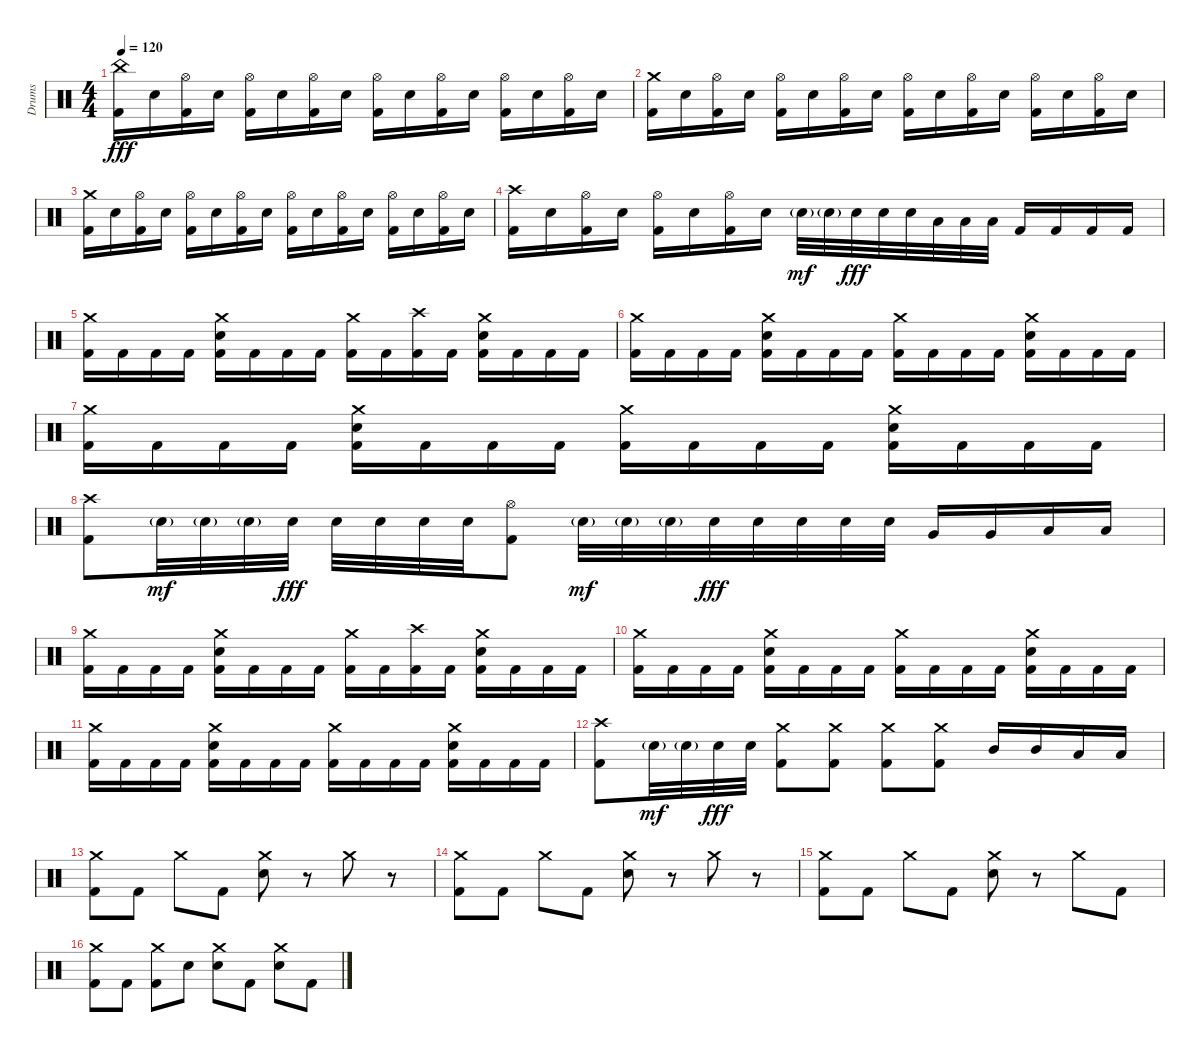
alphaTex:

\track ("Drums" "Drums") {instrument percussion}
\staff {score}
\articulation defaults
\ts (4 4)
\tempo 120
\clef neutral
\ks c
("China (hit)" "Kick (hit) 2").16{dy fff} "Electric Snare (hit)".16 ("Hi-Hat (open)" "Kick (hit) 2").16 "Electric Snare (hit)".16 ("Hi-Hat (open)" "Kick (hit) 2").16 "Electric Snare (hit)".16 ("Hi-Hat (open)" "Kick (hit) 2").16 "Electric Snare (hit)".16 ("Hi-Hat (open)" "Kick (hit) 2").16 "Electric Snare (hit)".16 ("Hi-Hat (open)" "Kick (hit) 2").16 "Electric Snare (hit)".16 ("Hi-Hat (open)" "Kick (hit) 2").16 "Electric Snare (hit)".16 ("Hi-Hat (open)" "Kick (hit) 2").16 "Electric Snare (hit)".16 |
("Crash medium (hit)" "Kick (hit) 2").16 "Electric Snare (hit)".16 ("Hi-Hat (open)" "Kick (hit) 2").16 "Electric Snare (hit)".16 ("Hi-Hat (open)" "Kick (hit) 2").16 "Electric Snare (hit)".16 ("Hi-Hat (open)" "Kick (hit) 2").16 "Electric Snare (hit)".16 ("Hi-Hat (open)" "Kick (hit) 2").16 "Electric Snare (hit)".16 ("Hi-Hat (open)" "Kick (hit) 2").16 "Electric Snare (hit)".16 ("Hi-Hat (open)" "Kick (hit) 2").16 "Electric Snare (hit)".16 ("Hi-Hat (open)" "Kick (hit) 2").16 "Electric Snare (hit)".16 |
("Crash medium (hit)" "Kick (hit) 2").16 "Electric Snare (hit)".16 ("Hi-Hat (open)" "Kick (hit) 2").16 "Electric Snare (hit)".16 ("Hi-Hat (open)" "Kick (hit) 2").16 "Electric Snare (hit)".16 ("Hi-Hat (open)" "Kick (hit) 2").16 "Electric Snare (hit)".16 ("Hi-Hat (open)" "Kick (hit) 2").16 "Electric Snare (hit)".16 ("Hi-Hat (open)" "Kick (hit) 2").16 "Electric Snare (hit)".16 ("Hi-Hat (open)" "Kick (hit) 2").16 "Electric Snare (hit)".16 ("Hi-Hat (open)" "Kick (hit) 2").16 "Electric Snare (hit)".16 |
("Crash high (hit)" "Kick (hit) 2").16 "Electric Snare (hit)".16 ("Hi-Hat (open)" "Kick (hit) 2").16 "Electric Snare (hit)".16 ("Hi-Hat (open)" "Kick (hit) 2").16 "Electric Snare (hit)".16 ("Hi-Hat (open)" "Kick (hit) 2").16 "Electric Snare (hit)".16 "Electric Snare (hit)"{g}.32{dy mf} "Electric Snare (hit)"{g}.32 "Electric Snare (hit)".32{dy fff} "Electric Snare (hit)".32 "Electric Snare (hit)".32 "Low Tom (hit)".32 "Low Tom (hit)".32 "Low Tom (hit)".32 "Kick (hit) 2".16 "Kick (hit) 2".16 "Kick (hit) 2".16 "Kick (hit) 2".16 |
("Crash medium (hit)" "Kick (hit) 2").16 "Kick (hit) 2".16 "Kick (hit) 2".16 "Kick (hit) 2".16 ("Crash medium (hit)" "Electric Snare (hit)" "Kick (hit) 2").16 "Kick (hit) 2".16 "Kick (hit) 2".16 "Kick (hit) 2".16 ("Crash medium (hit)" "Kick (hit) 2").16 "Kick (hit) 2".16 ("Crash high (hit)" "Kick (hit) 2").16 "Kick (hit) 2".16 ("Crash medium (hit)" "Electric Snare (hit)" "Kick (hit) 2").16 "Kick (hit) 2".16 "Kick (hit) 2".16 "Kick (hit) 2".16 |
("Crash medium (hit)" "Kick (hit) 2").16 "Kick (hit) 2".16 "Kick (hit) 2".16 "Kick (hit) 2".16 ("Crash medium (hit)" "Electric Snare (hit)" "Kick (hit) 2").16 "Kick (hit) 2".16 "Kick (hit) 2".16 "Kick (hit) 2".16 ("Crash medium (hit)" "Kick (hit) 2").16 "Kick (hit) 2".16 "Kick (hit) 2".16 "Kick (hit) 2".16 ("Crash medium (hit)" "Electric Snare (hit)" "Kick (hit) 2").16 "Kick (hit) 2".16 "Kick (hit) 2".16 "Kick (hit) 2".16 |
("Crash medium (hit)" "Kick (hit) 2").16 "Kick (hit) 2".16 "Kick (hit) 2".16 "Kick (hit) 2".16 ("Crash medium (hit)" "Electric Snare (hit)" "Kick (hit) 2").16 "Kick (hit) 2".16 "Kick (hit) 2".16 "Kick (hit) 2".16 ("Crash medium (hit)" "Kick (hit) 2").16 "Kick (hit) 2".16 "Kick (hit) 2".16 "Kick (hit) 2".16 ("Crash medium (hit)" "Electric Snare (hit)" "Kick (hit) 2").16 "Kick (hit) 2".16 "Kick (hit) 2".16 "Kick (hit) 2".16 |
("Crash high (hit)" "Kick (hit) 2").8 "Electric Snare (hit)"{g}.32{dy mf} "Electric Snare (hit)"{g}.32 "Electric Snare (hit)"{g}.32 "Electric Snare (hit)".32{dy fff} "Electric Snare (hit)".32 "Electric Snare (hit)".32 "Electric Snare (hit)".32 "Electric Snare (hit)".32 ("Hi-Hat (open)" "Kick (hit) 2").8 "Electric Snare (hit)"{g}.32{dy mf} "Electric Snare (hit)"{g}.32 "Electric Snare (hit)"{g}.32 "Electric Snare (hit)".32{dy fff} "Electric Snare (hit)".32 "Electric Snare (hit)".32 "Electric Snare (hit)".32 "Electric Snare (hit)".32 "Very Low Tom (hit)".16 "Very Low Tom (hit)".16 "Low Tom (hit)".16 "Low Tom (hit)".16 |
("Crash medium (hit)" "Kick (hit) 2").16 "Kick (hit) 2".16 "Kick (hit) 2".16 "Kick (hit) 2".16 ("Crash medium (hit)" "Electric Snare (hit)" "Kick (hit) 2").16 "Kick (hit) 2".16 "Kick (hit) 2".16 "Kick (hit) 2".16 ("Crash medium (hit)" "Kick (hit) 2").16 "Kick (hit) 2".16 ("Crash high (hit)" "Kick (hit) 2").16 "Kick (hit) 2".16 ("Crash medium (hit)" "Electric Snare (hit)" "Kick (hit) 2").16 "Kick (hit) 2".16 "Kick (hit) 2".16 "Kick (hit) 2".16 |
("Crash medium (hit)" "Kick (hit) 2").16 "Kick (hit) 2".16 "Kick (hit) 2".16 "Kick (hit) 2".16 ("Crash medium (hit)" "Electric Snare (hit)" "Kick (hit) 2").16 "Kick (hit) 2".16 "Kick (hit) 2".16 "Kick (hit) 2".16 ("Crash medium (hit)" "Kick (hit) 2").16 "Kick (hit) 2".16 "Kick (hit) 2".16 "Kick (hit) 2".16 ("Crash medium (hit)" "Electric Snare (hit)" "Kick (hit) 2").16 "Kick (hit) 2".16 "Kick (hit) 2".16 "Kick (hit) 2".16 |
("Crash medium (hit)" "Kick (hit) 2").16 "Kick (hit) 2".16 "Kick (hit) 2".16 "Kick (hit) 2".16 ("Crash medium (hit)" "Electric Snare (hit)" "Kick (hit) 2").16 "Kick (hit) 2".16 "Kick (hit) 2".16 "Kick (hit) 2".16 ("Crash medium (hit)" "Kick (hit) 2").16 "Kick (hit) 2".16 "Kick (hit) 2".16 "Kick (hit) 2".16 ("Crash medium (hit)" "Electric Snare (hit)" "Kick (hit) 2").16 "Kick (hit) 2".16 "Kick (hit) 2".16 "Kick (hit) 2".16 |
("Crash high (hit)" "Kick (hit) 2").8 "Electric Snare (hit)"{g}.32{dy mf} "Electric Snare (hit)"{g}.32 "Electric Snare (hit)".32{dy fff} "Electric Snare (hit)".32 ("Crash medium (hit)" "Kick (hit) 2").8 ("Crash medium (hit)" "Kick (hit) 2").8 ("Crash medium (hit)" "Kick (hit) 2").8 ("Crash medium (hit)" "Kick (hit) 2").8 "Mid Tom (hit)".16 "Mid Tom (hit)".16 "Low Tom (hit)".16 "Low Tom (hit)".16 |
("Crash medium (hit)" "Kick (hit) 2").8 "Kick (hit) 2".8 "Crash medium (hit)".8 "Kick (hit) 2".8 ("Crash medium (hit)" "Electric Snare (hit)").8 r.8 "Crash medium (hit)".8 r.8 |
("Crash medium (hit)" "Kick (hit) 2").8 "Kick (hit) 2".8 "Crash medium (hit)".8 "Kick (hit) 2".8 ("Crash medium (hit)" "Electric Snare (hit)").8 r.8 "Crash medium (hit)".8 r.8 |
("Crash medium (hit)" "Kick (hit) 2").8 "Kick (hit) 2".8 "Crash medium (hit)".8 "Kick (hit) 2".8 ("Crash medium (hit)" "Electric Snare (hit)").8 r.8 "Crash medium (hit)".8 "Kick (hit) 2".8 |
("Crash medium (hit)" "Kick (hit) 2").8 "Kick (hit) 2".8 ("Crash medium (hit)" "Kick (hit) 2").8 "Electric Snare (hit)".8 ("Crash medium (hit)" "Electric Snare (hit)").8 "Kick (hit) 2".8 ("Crash medium (hit)" "Electric Snare (hit)").8 "Kick (hit) 2".8
